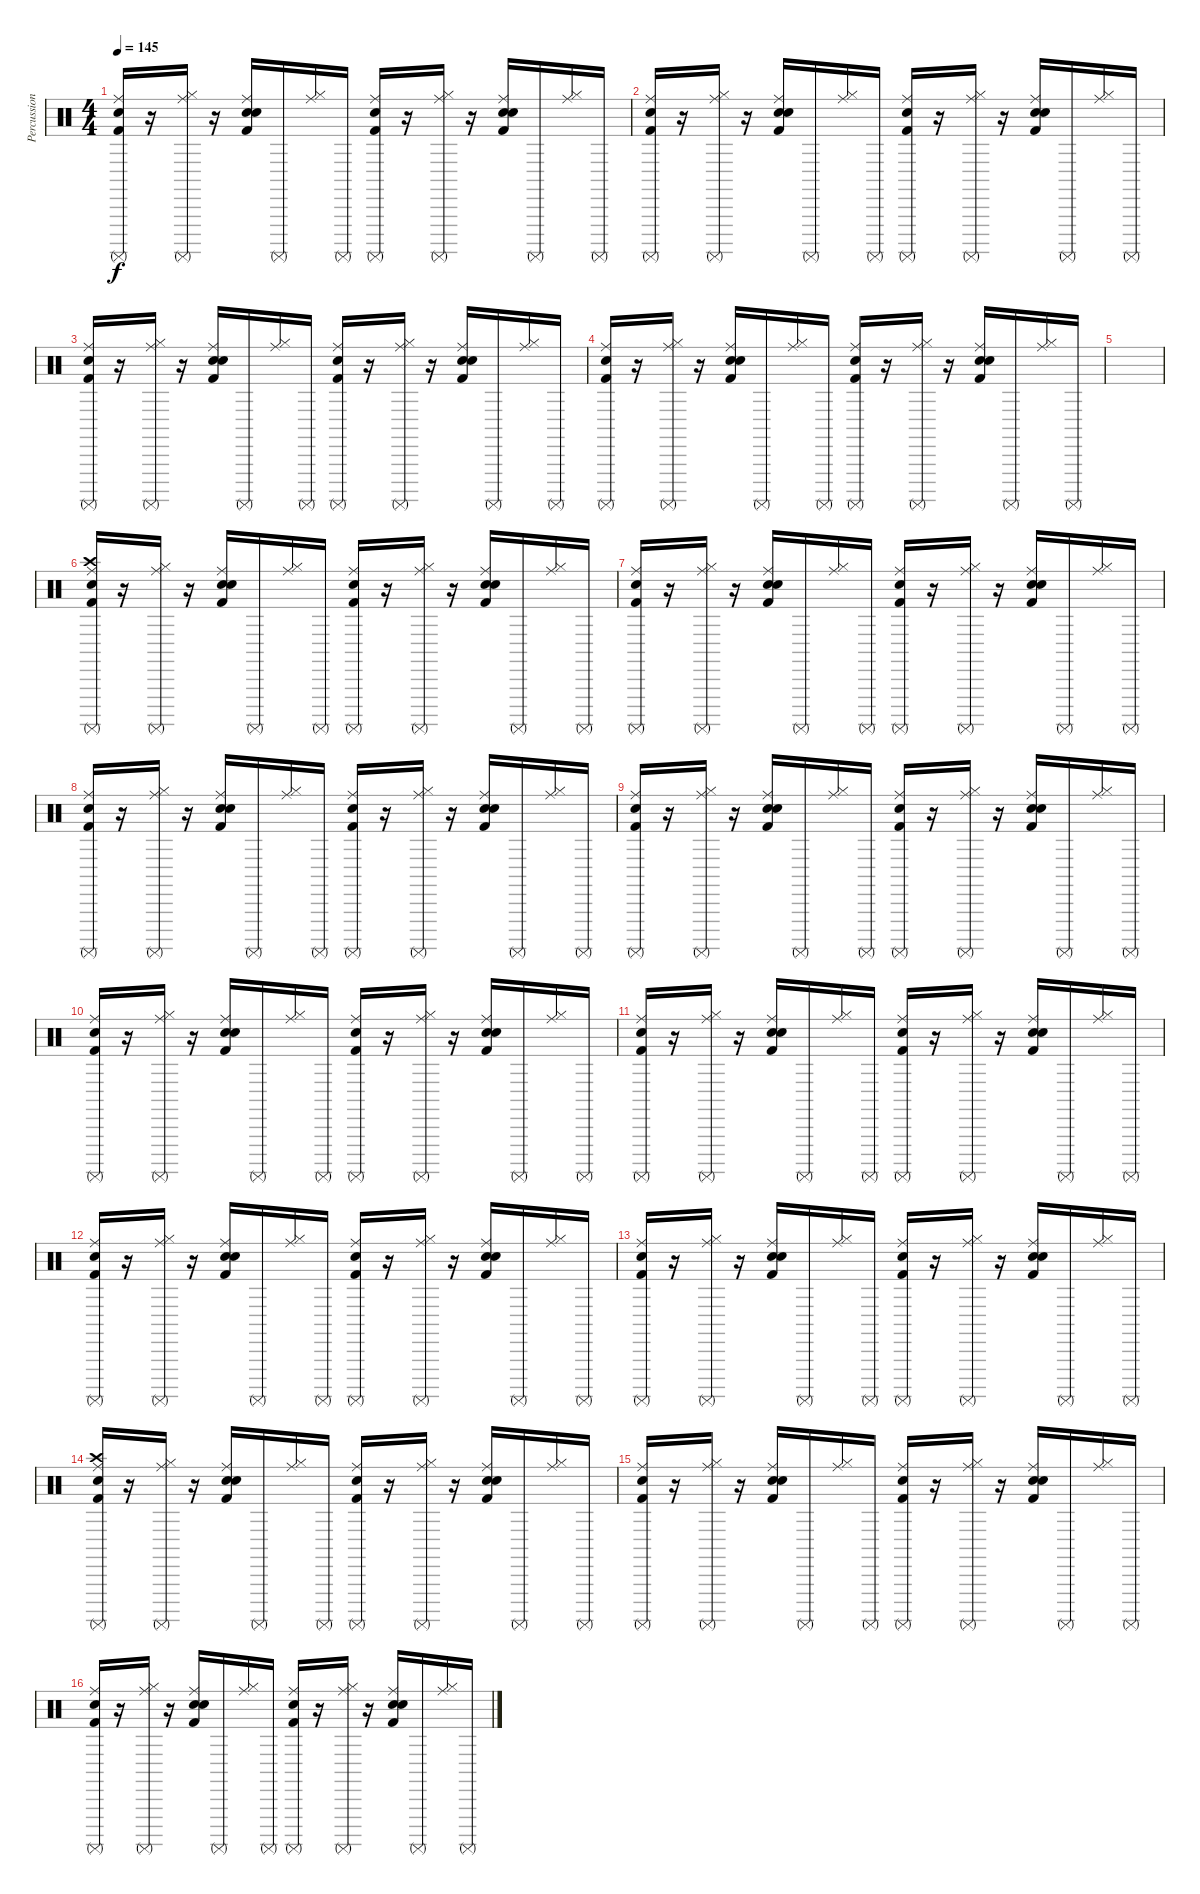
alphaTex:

\track ("Percussions" "Percussion") {instrument percussion}
\staff {score}
\articulation defaults
\ts (4 4)
\tempo 145
\clef neutral
\ks c
("Kick (hit) 2" "Snare (hit) 2" "Surdo (mute)" "Ride (middle)").16{dy f} r.16 ("Hi-Hat (closed)" "Surdo (mute)" "Ride (middle)").16 r.16 ("Kick (hit) 2" "Electric Snare (hit)" "Hand Clap (hit)" "Ride (middle)").16 "Surdo (mute)".16 ("Hi-Hat (closed)" "Ride (middle)").16 "Surdo (mute)".16 ("Kick (hit) 2" "Snare (hit) 2" "Surdo (mute)" "Ride (middle)").16 r.16 ("Hi-Hat (closed)" "Surdo (mute)" "Ride (middle)").16 r.16 ("Kick (hit) 2" "Electric Snare (hit)" "Hand Clap (hit)" "Ride (middle)").16 "Surdo (mute)".16 ("Hi-Hat (closed)" "Ride (middle)").16 "Surdo (mute)".16 |
("Kick (hit) 2" "Snare (hit) 2" "Surdo (mute)" "Ride (middle)").16 r.16 ("Hi-Hat (closed)" "Surdo (mute)" "Ride (middle)").16 r.16 ("Kick (hit) 2" "Electric Snare (hit)" "Hand Clap (hit)" "Ride (middle)").16 "Surdo (mute)".16 ("Hi-Hat (closed)" "Ride (middle)").16 "Surdo (mute)".16 ("Kick (hit) 2" "Snare (hit) 2" "Surdo (mute)" "Ride (middle)").16 r.16 ("Hi-Hat (closed)" "Surdo (mute)" "Ride (middle)").16 r.16 ("Kick (hit) 2" "Electric Snare (hit)" "Hand Clap (hit)" "Ride (middle)").16 "Surdo (mute)".16 ("Hi-Hat (closed)" "Ride (middle)").16 "Surdo (mute)".16 |
("Kick (hit) 2" "Snare (hit) 2" "Surdo (mute)" "Ride (middle)").16 r.16 ("Hi-Hat (closed)" "Surdo (mute)" "Ride (middle)").16 r.16 ("Kick (hit) 2" "Electric Snare (hit)" "Hand Clap (hit)" "Ride (middle)").16 "Surdo (mute)".16 ("Hi-Hat (closed)" "Ride (middle)").16 "Surdo (mute)".16 ("Kick (hit) 2" "Snare (hit) 2" "Surdo (mute)" "Ride (middle)").16 r.16 ("Hi-Hat (closed)" "Surdo (mute)" "Ride (middle)").16 r.16 ("Kick (hit) 2" "Electric Snare (hit)" "Hand Clap (hit)" "Ride (middle)").16 "Surdo (mute)".16 ("Hi-Hat (closed)" "Ride (middle)").16 "Surdo (mute)".16 |
("Kick (hit) 2" "Snare (hit) 2" "Surdo (mute)" "Ride (middle)").16 r.16 ("Hi-Hat (closed)" "Surdo (mute)" "Ride (middle)").16 r.16 ("Kick (hit) 2" "Electric Snare (hit)" "Hand Clap (hit)" "Ride (middle)").16 "Surdo (mute)".16 ("Hi-Hat (closed)" "Ride (middle)").16 "Surdo (mute)".16 ("Kick (hit) 2" "Snare (hit) 2" "Surdo (mute)" "Ride (middle)").16 r.16 ("Hi-Hat (closed)" "Surdo (mute)" "Ride (middle)").16 r.16 ("Kick (hit) 2" "Electric Snare (hit)" "Hand Clap (hit)" "Ride (middle)").16 "Surdo (mute)".16 ("Hi-Hat (closed)" "Ride (middle)").16 "Surdo (mute)".16 |
|
("Kick (hit) 2" "Snare (hit) 2" "Surdo (mute)" "Crash high (hit)" "Ride (middle)").16 r.16 ("Hi-Hat (closed)" "Surdo (mute)" "Ride (middle)").16 r.16 ("Kick (hit) 2" "Electric Snare (hit)" "Hand Clap (hit)" "Ride (middle)").16 "Surdo (mute)".16 ("Hi-Hat (closed)" "Ride (middle)").16 "Surdo (mute)".16 ("Kick (hit) 2" "Snare (hit) 2" "Surdo (mute)" "Ride (middle)").16 r.16 ("Hi-Hat (closed)" "Surdo (mute)" "Ride (middle)").16 r.16 ("Kick (hit) 2" "Electric Snare (hit)" "Hand Clap (hit)" "Ride (middle)").16 "Surdo (mute)".16 ("Hi-Hat (closed)" "Ride (middle)").16 "Surdo (mute)".16 |
("Kick (hit) 2" "Snare (hit) 2" "Surdo (mute)" "Ride (middle)").16 r.16 ("Hi-Hat (closed)" "Surdo (mute)" "Ride (middle)").16 r.16 ("Kick (hit) 2" "Electric Snare (hit)" "Hand Clap (hit)" "Ride (middle)").16 "Surdo (mute)".16 ("Hi-Hat (closed)" "Ride (middle)").16 "Surdo (mute)".16 ("Kick (hit) 2" "Snare (hit) 2" "Surdo (mute)" "Ride (middle)").16 r.16 ("Hi-Hat (closed)" "Surdo (mute)" "Ride (middle)").16 r.16 ("Kick (hit) 2" "Electric Snare (hit)" "Hand Clap (hit)" "Ride (middle)").16 "Surdo (mute)".16 ("Hi-Hat (closed)" "Ride (middle)").16 "Surdo (mute)".16 |
("Kick (hit) 2" "Snare (hit) 2" "Surdo (mute)" "Ride (middle)").16 r.16 ("Hi-Hat (closed)" "Surdo (mute)" "Ride (middle)").16 r.16 ("Kick (hit) 2" "Electric Snare (hit)" "Hand Clap (hit)" "Ride (middle)").16 "Surdo (mute)".16 ("Hi-Hat (closed)" "Ride (middle)").16 "Surdo (mute)".16 ("Kick (hit) 2" "Snare (hit) 2" "Surdo (mute)" "Ride (middle)").16 r.16 ("Hi-Hat (closed)" "Surdo (mute)" "Ride (middle)").16 r.16 ("Kick (hit) 2" "Electric Snare (hit)" "Hand Clap (hit)" "Ride (middle)").16 "Surdo (mute)".16 ("Hi-Hat (closed)" "Ride (middle)").16 "Surdo (mute)".16 |
("Kick (hit) 2" "Snare (hit) 2" "Surdo (mute)" "Ride (middle)").16 r.16 ("Hi-Hat (closed)" "Surdo (mute)" "Ride (middle)").16 r.16 ("Kick (hit) 2" "Electric Snare (hit)" "Hand Clap (hit)" "Ride (middle)").16 "Surdo (mute)".16 ("Hi-Hat (closed)" "Ride (middle)").16 "Surdo (mute)".16 ("Kick (hit) 2" "Snare (hit) 2" "Surdo (mute)" "Ride (middle)").16 r.16 ("Hi-Hat (closed)" "Surdo (mute)" "Ride (middle)").16 r.16 ("Kick (hit) 2" "Electric Snare (hit)" "Hand Clap (hit)" "Ride (middle)").16 "Surdo (mute)".16 ("Hi-Hat (closed)" "Ride (middle)").16 "Surdo (mute)".16 |
("Kick (hit) 2" "Snare (hit) 2" "Surdo (mute)" "Ride (middle)").16 r.16 ("Hi-Hat (closed)" "Surdo (mute)" "Ride (middle)").16 r.16 ("Kick (hit) 2" "Electric Snare (hit)" "Hand Clap (hit)" "Ride (middle)").16 "Surdo (mute)".16 ("Hi-Hat (closed)" "Ride (middle)").16 "Surdo (mute)".16 ("Kick (hit) 2" "Snare (hit) 2" "Surdo (mute)" "Ride (middle)").16 r.16 ("Hi-Hat (closed)" "Surdo (mute)" "Ride (middle)").16 r.16 ("Kick (hit) 2" "Electric Snare (hit)" "Hand Clap (hit)" "Ride (middle)").16 "Surdo (mute)".16 ("Hi-Hat (closed)" "Ride (middle)").16 "Surdo (mute)".16 |
("Kick (hit) 2" "Snare (hit) 2" "Surdo (mute)" "Ride (middle)").16 r.16 ("Hi-Hat (closed)" "Surdo (mute)" "Ride (middle)").16 r.16 ("Kick (hit) 2" "Electric Snare (hit)" "Hand Clap (hit)" "Ride (middle)").16 "Surdo (mute)".16 ("Hi-Hat (closed)" "Ride (middle)").16 "Surdo (mute)".16 ("Kick (hit) 2" "Snare (hit) 2" "Surdo (mute)" "Ride (middle)").16 r.16 ("Hi-Hat (closed)" "Surdo (mute)" "Ride (middle)").16 r.16 ("Kick (hit) 2" "Electric Snare (hit)" "Hand Clap (hit)" "Ride (middle)").16 "Surdo (mute)".16 ("Hi-Hat (closed)" "Ride (middle)").16 "Surdo (mute)".16 |
("Kick (hit) 2" "Snare (hit) 2" "Surdo (mute)" "Ride (middle)").16 r.16 ("Hi-Hat (closed)" "Surdo (mute)" "Ride (middle)").16 r.16 ("Kick (hit) 2" "Electric Snare (hit)" "Hand Clap (hit)" "Ride (middle)").16 "Surdo (mute)".16 ("Hi-Hat (closed)" "Ride (middle)").16 "Surdo (mute)".16 ("Kick (hit) 2" "Snare (hit) 2" "Surdo (mute)" "Ride (middle)").16 r.16 ("Hi-Hat (closed)" "Surdo (mute)" "Ride (middle)").16 r.16 ("Kick (hit) 2" "Electric Snare (hit)" "Hand Clap (hit)" "Ride (middle)").16 "Surdo (mute)".16 ("Hi-Hat (closed)" "Ride (middle)").16 "Surdo (mute)".16 |
("Kick (hit) 2" "Snare (hit) 2" "Surdo (mute)" "Ride (middle)").16 r.16 ("Hi-Hat (closed)" "Surdo (mute)" "Ride (middle)").16 r.16 ("Kick (hit) 2" "Electric Snare (hit)" "Hand Clap (hit)" "Ride (middle)").16 "Surdo (mute)".16 ("Hi-Hat (closed)" "Ride (middle)").16 "Surdo (mute)".16 ("Kick (hit) 2" "Snare (hit) 2" "Surdo (mute)" "Ride (middle)").16 r.16 ("Hi-Hat (closed)" "Surdo (mute)" "Ride (middle)").16 r.16 ("Kick (hit) 2" "Electric Snare (hit)" "Hand Clap (hit)" "Ride (middle)").16 "Surdo (mute)".16 ("Hi-Hat (closed)" "Ride (middle)").16 "Surdo (mute)".16 |
("Kick (hit) 2" "Snare (hit) 2" "Surdo (mute)" "Crash high (hit)" "Ride (middle)").16 r.16 ("Hi-Hat (closed)" "Surdo (mute)" "Ride (middle)").16 r.16 ("Kick (hit) 2" "Electric Snare (hit)" "Hand Clap (hit)" "Ride (middle)").16 "Surdo (mute)".16 ("Hi-Hat (closed)" "Ride (middle)").16 "Surdo (mute)".16 ("Kick (hit) 2" "Snare (hit) 2" "Surdo (mute)" "Ride (middle)").16 r.16 ("Hi-Hat (closed)" "Surdo (mute)" "Ride (middle)").16 r.16 ("Kick (hit) 2" "Electric Snare (hit)" "Hand Clap (hit)" "Ride (middle)").16 "Surdo (mute)".16 ("Hi-Hat (closed)" "Ride (middle)").16 "Surdo (mute)".16 |
("Kick (hit) 2" "Snare (hit) 2" "Surdo (mute)" "Ride (middle)").16 r.16 ("Hi-Hat (closed)" "Surdo (mute)" "Ride (middle)").16 r.16 ("Kick (hit) 2" "Electric Snare (hit)" "Hand Clap (hit)" "Ride (middle)").16 "Surdo (mute)".16 ("Hi-Hat (closed)" "Ride (middle)").16 "Surdo (mute)".16 ("Kick (hit) 2" "Snare (hit) 2" "Surdo (mute)" "Ride (middle)").16 r.16 ("Hi-Hat (closed)" "Surdo (mute)" "Ride (middle)").16 r.16 ("Kick (hit) 2" "Electric Snare (hit)" "Hand Clap (hit)" "Ride (middle)").16 "Surdo (mute)".16 ("Hi-Hat (closed)" "Ride (middle)").16 "Surdo (mute)".16 |
("Kick (hit) 2" "Snare (hit) 2" "Surdo (mute)" "Ride (middle)").16 r.16 ("Hi-Hat (closed)" "Surdo (mute)" "Ride (middle)").16 r.16 ("Kick (hit) 2" "Electric Snare (hit)" "Hand Clap (hit)" "Ride (middle)").16 "Surdo (mute)".16 ("Hi-Hat (closed)" "Ride (middle)").16 "Surdo (mute)".16 ("Kick (hit) 2" "Snare (hit) 2" "Surdo (mute)" "Ride (middle)").16 r.16 ("Hi-Hat (closed)" "Surdo (mute)" "Ride (middle)").16 r.16 ("Kick (hit) 2" "Electric Snare (hit)" "Hand Clap (hit)" "Ride (middle)").16 "Surdo (mute)".16 ("Hi-Hat (closed)" "Ride (middle)").16 "Surdo (mute)".16
